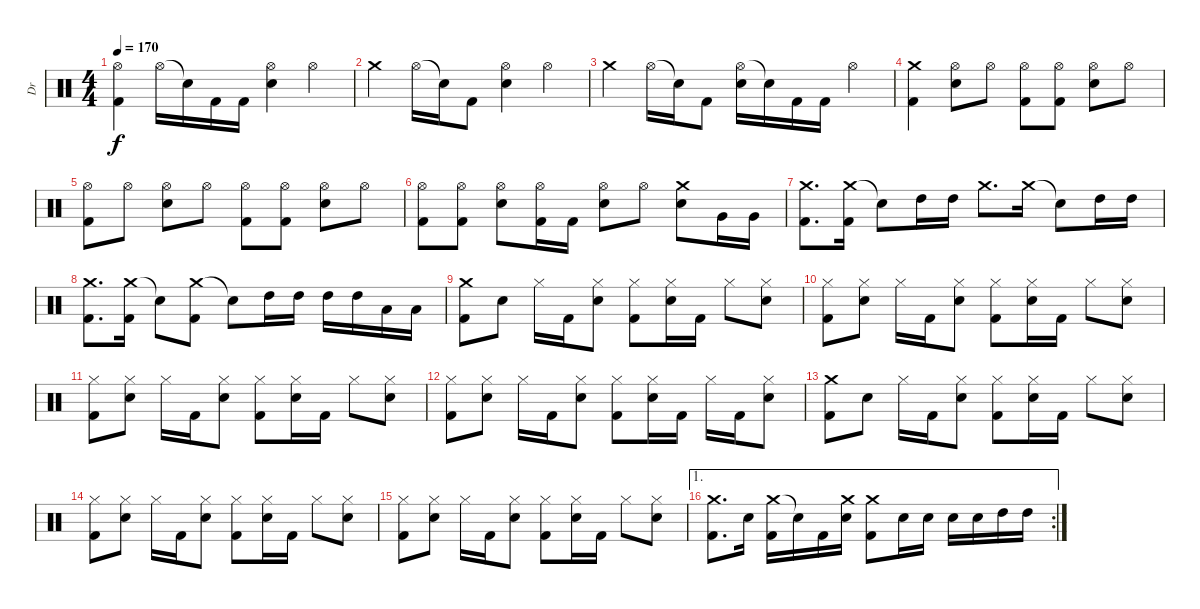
\track ("Dr" "Dr") {instrument percussion}
\staff {score}
\articulation defaults
\ts (4 4)
\tempo 170
\clef neutral
\ks c
("Hi-Hat (open)" "Kick (hit) 2").4{dy f} "Hi-Hat (open)".16 "Snare (hit)"{t}.16 "Kick (hit) 2".16 "Kick (hit) 2".16 ("Hi-Hat (open)" "Electric Snare (hit)").4 "Hi-Hat (open)".4 |
"Crash medium (hit)".4 "Hi-Hat (open)".16 "Snare (hit)"{t}.16 "Kick (hit) 2".8 ("Hi-Hat (open)" "Electric Snare (hit)").4 "Hi-Hat (open)".4 |
"Crash medium (hit)".4 "Hi-Hat (open)".16 "Snare (hit)"{t}.16 "Kick (hit) 2".8 ("Hi-Hat (open)" "Electric Snare (hit)").16 "Snare (hit)"{t}.16 "Kick (hit) 2".16 "Kick (hit) 2".16 "Hi-Hat (open)".4 |
("Crash medium (hit)" "Kick (hit) 2").4 ("Hi-Hat (open)" "Electric Snare (hit)").8 "Hi-Hat (open)".8 ("Hi-Hat (open)" "Kick (hit) 2").8 ("Hi-Hat (open)" "Kick (hit) 2").8 ("Hi-Hat (open)" "Electric Snare (hit)").8 "Hi-Hat (open)".8 |
("Hi-Hat (open)" "Kick (hit) 2").8 "Hi-Hat (open)".8 ("Hi-Hat (open)" "Electric Snare (hit)").8 "Hi-Hat (open)".8 ("Hi-Hat (open)" "Kick (hit) 2").8 ("Hi-Hat (open)" "Kick (hit) 2").8 ("Hi-Hat (open)" "Electric Snare (hit)").8 "Hi-Hat (open)".8 |
("Hi-Hat (open)" "Kick (hit) 2").8 ("Hi-Hat (open)" "Kick (hit) 2").8 ("Hi-Hat (open)" "Electric Snare (hit)").8 ("Hi-Hat (open)" "Kick (hit) 2").16 "Kick (hit) 2".16 ("Hi-Hat (open)" "Electric Snare (hit)").8 "Hi-Hat (open)".8 ("Crash medium (hit)" "Electric Snare (hit)").8 "Very Low Tom (hit)".16 "Very Low Tom (hit)".16 |
("Crash medium (hit)" "Kick (hit) 2").8{d} ("Crash medium (hit)" "Kick (hit) 2").16 "Snare (hit)"{t}.8 "High Tom (hit)".16 "High Tom (hit)".16 "Crash medium (hit)".8{d} "Crash medium (hit)".16 "Snare (hit)"{t}.8 "High Tom (hit)".16 "High Tom (hit)".16 |
("Crash medium (hit)" "Kick (hit) 2").8{d} ("Crash medium (hit)" "Kick (hit) 2").16 "Snare (hit)"{t}.8 ("Crash medium (hit)" "Kick (hit) 2").8 "Snare (hit)"{t}.8 "High Tom (hit)".16 "High Tom (hit)".16 "High Tom (hit)".16 "High Tom (hit)".16 "Low Tom (hit)".16 "Low Tom (hit)".16 |
("Crash medium (hit)" "Kick (hit) 2").8 "Electric Snare (hit)".8 "Hi-Hat (closed)".16 "Kick (hit) 2".16 ("Hi-Hat (closed)" "Electric Snare (hit)").8 ("Hi-Hat (closed)" "Kick (hit) 2").8 ("Hi-Hat (closed)" "Electric Snare (hit)").16 "Kick (hit) 2".16 "Hi-Hat (closed)".8 ("Hi-Hat (closed)" "Electric Snare (hit)").8 |
("Hi-Hat (closed)" "Kick (hit) 2").8 ("Hi-Hat (closed)" "Electric Snare (hit)").8 "Hi-Hat (closed)".16 "Kick (hit) 2".16 ("Hi-Hat (closed)" "Electric Snare (hit)").8 ("Hi-Hat (closed)" "Kick (hit) 2").8 ("Hi-Hat (closed)" "Electric Snare (hit)").16 "Kick (hit) 2".16 "Hi-Hat (closed)".8 ("Hi-Hat (closed)" "Electric Snare (hit)").8 |
("Hi-Hat (closed)" "Kick (hit) 2").8 ("Hi-Hat (closed)" "Electric Snare (hit)").8 "Hi-Hat (closed)".16 "Kick (hit) 2".16 ("Hi-Hat (closed)" "Electric Snare (hit)").8 ("Hi-Hat (closed)" "Kick (hit) 2").8 ("Hi-Hat (closed)" "Electric Snare (hit)").16 "Kick (hit) 2".16 "Hi-Hat (closed)".8 ("Hi-Hat (closed)" "Electric Snare (hit)").8 |
("Hi-Hat (closed)" "Kick (hit) 2").8 ("Hi-Hat (closed)" "Electric Snare (hit)").8 "Hi-Hat (closed)".16 "Kick (hit) 2".16 ("Hi-Hat (closed)" "Electric Snare (hit)").8 ("Hi-Hat (closed)" "Kick (hit) 2").8 ("Hi-Hat (closed)" "Electric Snare (hit)").16 "Kick (hit) 2".16 "Hi-Hat (closed)".16 "Kick (hit) 2".16 ("Hi-Hat (closed)" "Electric Snare (hit)").8 |
("Crash medium (hit)" "Kick (hit) 2").8 "Electric Snare (hit)".8 "Hi-Hat (closed)".16 "Kick (hit) 2".16 ("Hi-Hat (closed)" "Electric Snare (hit)").8 ("Hi-Hat (closed)" "Kick (hit) 2").8 ("Hi-Hat (closed)" "Electric Snare (hit)").16 "Kick (hit) 2".16 "Hi-Hat (closed)".8 ("Hi-Hat (closed)" "Electric Snare (hit)").8 |
("Hi-Hat (closed)" "Kick (hit) 2").8 ("Hi-Hat (closed)" "Electric Snare (hit)").8 "Hi-Hat (closed)".16 "Kick (hit) 2".16 ("Hi-Hat (closed)" "Electric Snare (hit)").8 ("Hi-Hat (closed)" "Kick (hit) 2").8 ("Hi-Hat (closed)" "Electric Snare (hit)").16 "Kick (hit) 2".16 "Hi-Hat (closed)".8 ("Hi-Hat (closed)" "Electric Snare (hit)").8 |
("Hi-Hat (closed)" "Kick (hit) 2").8 ("Hi-Hat (closed)" "Electric Snare (hit)").8 "Hi-Hat (closed)".16 "Kick (hit) 2".16 ("Hi-Hat (closed)" "Electric Snare (hit)").8 ("Hi-Hat (closed)" "Kick (hit) 2").8 ("Hi-Hat (closed)" "Electric Snare (hit)").16 "Kick (hit) 2".16 "Hi-Hat (closed)".8 ("Hi-Hat (closed)" "Electric Snare (hit)").8 |
\ae 1
\rc 2
("Crash medium (hit)" "Kick (hit) 2").8{d} "Electric Snare (hit)".16 ("Crash medium (hit)" "Kick (hit) 2").16 "Snare (hit)"{t}.16 "Kick (hit) 2".16 ("Crash medium (hit)" "Electric Snare (hit)").16 ("Crash medium (hit)" "Kick (hit) 2").8 "Electric Snare (hit)".16 "Electric Snare (hit)".16 "Electric Snare (hit)".16 "Electric Snare (hit)".16 "High Tom (hit)".16 "High Tom (hit)".16
